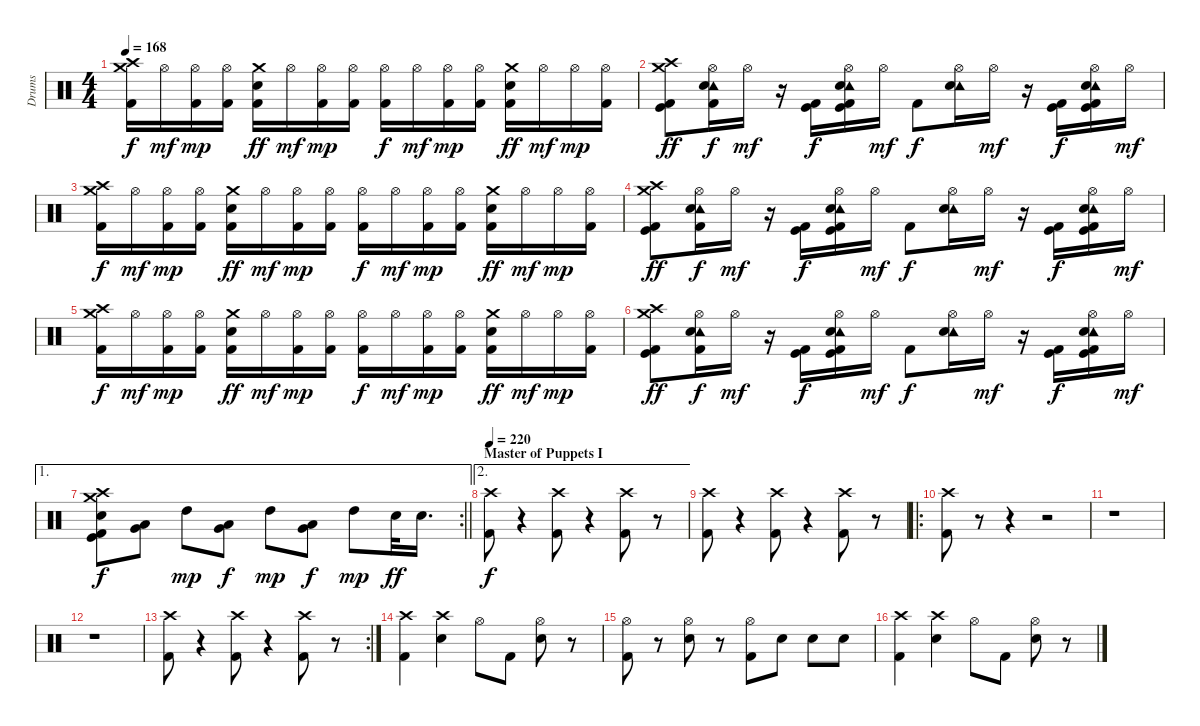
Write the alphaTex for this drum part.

\track ("Drums" "Drums") {instrument percussion}
\staff {score}
\articulation defaults
\ts (4 4)
\tempo 168
\clef neutral
\ks c
("Crash high (hit)" "Crash medium (hit)" "Kick (hit) 2").16{dy f} "Hi-Hat (open)".16{dy mf} ("Hi-Hat (open)" "Kick (hit) 2").16{dy mp} ("Hi-Hat (open)" "Kick (hit) 2").16 ("Crash medium (hit)" "Snare (hit) 2" "Kick (hit) 2").16{dy ff} "Hi-Hat (open)".16{dy mf} ("Hi-Hat (open)" "Kick (hit) 2").16{dy mp} ("Hi-Hat (open)" "Kick (hit) 2").16 ("Hi-Hat (open)" "Kick (hit) 2").16{dy f} "Hi-Hat (open)".16{dy mf} ("Hi-Hat (open)" "Kick (hit) 2").16{dy mp} ("Hi-Hat (open)" "Kick (hit) 2").16 ("Crash medium (hit)" "Snare (hit) 2" "Kick (hit) 2").16{dy ff} "Hi-Hat (open)".16{dy mf} "Hi-Hat (open)".16{dy mp} ("Hi-Hat (open)" "Kick (hit) 2").16 |
("Crash high (hit)" "Crash medium (hit)" "Kick (hit)" "Kick (hit) 2").8{dy ff} ("Tambourine (hit)" "Hi-Hat (open)" "Snare (hit) 2" "Kick (hit) 2").16{dy f} "Hi-Hat (open)".16{dy mf} r.16 ("Kick (hit)" "Kick (hit) 2").16{dy f} ("Tambourine (hit)" "Hi-Hat (open)" "Snare (hit) 2" "Kick (hit)" "Kick (hit) 2").16 "Hi-Hat (open)".16{dy mf} "Kick (hit) 2".8{dy f} ("Tambourine (hit)" "Hi-Hat (open)" "Snare (hit) 2").16 "Hi-Hat (open)".16{dy mf} r.16 ("Kick (hit)" "Kick (hit) 2").16{dy f} ("Tambourine (hit)" "Hi-Hat (open)" "Snare (hit) 2" "Kick (hit)" "Kick (hit) 2").16 "Hi-Hat (open)".16{dy mf} |
("Crash high (hit)" "Crash medium (hit)" "Kick (hit) 2").16{dy f} "Hi-Hat (open)".16{dy mf} ("Hi-Hat (open)" "Kick (hit) 2").16{dy mp} ("Hi-Hat (open)" "Kick (hit) 2").16 ("Crash medium (hit)" "Snare (hit) 2" "Kick (hit) 2").16{dy ff} "Hi-Hat (open)".16{dy mf} ("Hi-Hat (open)" "Kick (hit) 2").16{dy mp} ("Hi-Hat (open)" "Kick (hit) 2").16 ("Hi-Hat (open)" "Kick (hit) 2").16{dy f} "Hi-Hat (open)".16{dy mf} ("Hi-Hat (open)" "Kick (hit) 2").16{dy mp} ("Hi-Hat (open)" "Kick (hit) 2").16 ("Crash medium (hit)" "Snare (hit) 2" "Kick (hit) 2").16{dy ff} "Hi-Hat (open)".16{dy mf} "Hi-Hat (open)".16{dy mp} ("Hi-Hat (open)" "Kick (hit) 2").16 |
("Crash high (hit)" "Crash medium (hit)" "Kick (hit)" "Kick (hit) 2").8{dy ff} ("Tambourine (hit)" "Hi-Hat (open)" "Snare (hit) 2" "Kick (hit) 2").16{dy f} "Hi-Hat (open)".16{dy mf} r.16 ("Kick (hit)" "Kick (hit) 2").16{dy f} ("Tambourine (hit)" "Hi-Hat (open)" "Snare (hit) 2" "Kick (hit)" "Kick (hit) 2").16 "Hi-Hat (open)".16{dy mf} "Kick (hit) 2".8{dy f} ("Tambourine (hit)" "Hi-Hat (open)" "Snare (hit) 2").16 "Hi-Hat (open)".16{dy mf} r.16 ("Kick (hit)" "Kick (hit) 2").16{dy f} ("Tambourine (hit)" "Hi-Hat (open)" "Snare (hit) 2" "Kick (hit)" "Kick (hit) 2").16 "Hi-Hat (open)".16{dy mf} |
("Crash high (hit)" "Crash medium (hit)" "Kick (hit) 2").16{dy f} "Hi-Hat (open)".16{dy mf} ("Hi-Hat (open)" "Kick (hit) 2").16{dy mp} ("Hi-Hat (open)" "Kick (hit) 2").16 ("Crash medium (hit)" "Snare (hit) 2" "Kick (hit) 2").16{dy ff} "Hi-Hat (open)".16{dy mf} ("Hi-Hat (open)" "Kick (hit) 2").16{dy mp} ("Hi-Hat (open)" "Kick (hit) 2").16 ("Hi-Hat (open)" "Kick (hit) 2").16{dy f} "Hi-Hat (open)".16{dy mf} ("Hi-Hat (open)" "Kick (hit) 2").16{dy mp} ("Hi-Hat (open)" "Kick (hit) 2").16 ("Crash medium (hit)" "Snare (hit) 2" "Kick (hit) 2").16{dy ff} "Hi-Hat (open)".16{dy mf} "Hi-Hat (open)".16{dy mp} ("Hi-Hat (open)" "Kick (hit) 2").16 |
("Crash high (hit)" "Crash medium (hit)" "Kick (hit)" "Kick (hit) 2").8{dy ff} ("Tambourine (hit)" "Hi-Hat (open)" "Snare (hit) 2" "Kick (hit) 2").16{dy f} "Hi-Hat (open)".16{dy mf} r.16 ("Kick (hit)" "Kick (hit) 2").16{dy f} ("Tambourine (hit)" "Hi-Hat (open)" "Snare (hit) 2" "Kick (hit)" "Kick (hit) 2").16 "Hi-Hat (open)".16{dy mf} "Kick (hit) 2".8{dy f} ("Tambourine (hit)" "Hi-Hat (open)" "Snare (hit) 2").16 "Hi-Hat (open)".16{dy mf} r.16 ("Kick (hit)" "Kick (hit) 2").16{dy f} ("Tambourine (hit)" "Hi-Hat (open)" "Snare (hit) 2" "Kick (hit)" "Kick (hit) 2").16 "Hi-Hat (open)".16{dy mf} |
\ae 1
\rc 2
\barLineRight lightlight
("Crash high (hit)" "Crash medium (hit)" "Snare (hit) 2" "Kick (hit)" "Kick (hit) 2").8{dy f} ("Low Tom (hit)" "Very Low Tom (hit)").8 "High Tom (hit)".8{dy mp} ("Low Tom (hit)" "Very Low Tom (hit)").8{dy f} "High Tom (hit)".8{dy mp} ("Low Tom (hit)" "Very Low Tom (hit)").8{dy f} "High Tom (hit)".8{dy mp} "Snare (hit) 2".32{dy ff} "Snare (hit) 2".16{d} |
\ae 2
\section ("" "Master of Puppets I")
\tempo 220
("Crash high (hit)" "Kick (hit) 2").8{dy f} r.4 ("Crash high (hit)" "Kick (hit) 2").8 r.4 ("Crash high (hit)" "Kick (hit) 2").8 r.8 |
("Crash high (hit)" "Kick (hit) 2").8 r.4 ("Crash high (hit)" "Kick (hit) 2").8 r.4 ("Crash high (hit)" "Kick (hit) 2").8 r.8 |
\ro
("Crash high (hit)" "Kick (hit) 2").8 r.8 r.4 r.2 |
r.1 |
r.1 |
\rc 2
("Crash high (hit)" "Kick (hit) 2").8 r.4 ("Crash high (hit)" "Kick (hit) 2").8 r.4 ("Crash high (hit)" "Kick (hit) 2").8 r.8 |
("Crash high (hit)" "Kick (hit) 2").4 ("Crash high (hit)" "Snare (hit) 2").4 "Hi-Hat (open)".8 "Kick (hit) 2".8 ("Hi-Hat (open)" "Snare (hit) 2").8 r.8 |
("Hi-Hat (open)" "Kick (hit) 2").8 r.8 ("Hi-Hat (open)" "Snare (hit) 2").8 r.8 ("Hi-Hat (open)" "Kick (hit) 2").8 "Snare (hit) 2".8 "Snare (hit) 2".8 "Snare (hit) 2".8 |
("Crash high (hit)" "Kick (hit) 2").4 ("Crash high (hit)" "Snare (hit) 2").4 "Hi-Hat (open)".8 "Kick (hit) 2".8 ("Hi-Hat (open)" "Snare (hit) 2").8 r.8
